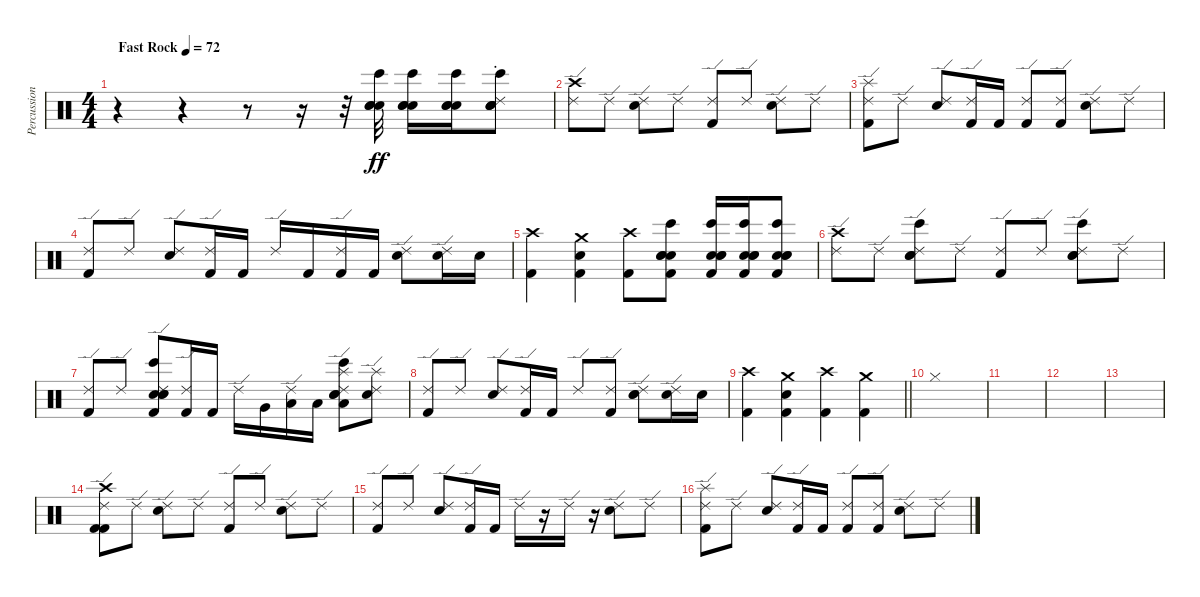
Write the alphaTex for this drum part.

\track ("Percussion" "Percussion") {instrument percussion}
\staff {score}
\articulation defaults
\ts (4 4)
\tempo (72 "Fast Rock")
\clef neutral
\ks c
r.4{dy ff} r.4 r.8 r.16 r.32 ("Snare (hit) 2" "Hand Clap (hit)" "Bongo High (hit)" "Electric Snare (hit)").32 ("Snare (hit) 2" "Hand Clap (hit)" "Bongo High (hit)" "Electric Snare (hit)").16 ("Snare (hit) 2" "Hand Clap (hit)" "Bongo High (hit)" "Electric Snare (hit)").16 ("Hand Clap (hit)" "Snare (hit) 2" "Bongo High (hit)" "Electric Snare (hit)" "Ride (choke) 2").8 |
("Crash high (hit)" "Ride (edge) 2").8 "Ride (edge) 2".8 ("Ride (edge) 2" "Snare (hit) 2").8 "Ride (edge) 2".8 ("Ride (edge) 2" "Kick (hit) 2").8 "Ride (edge) 2".8 ("Ride (edge) 2" "Snare (hit) 2").8 "Ride (edge) 2".8 |
("Splash (hit)" "Kick (hit) 2" "Ride (edge) 2").8 "Ride (edge) 2".8 ("Ride (edge) 2" "Snare (hit) 2").8 ("Ride (edge) 2" "Kick (hit) 2").16 "Kick (hit) 2".16 ("Ride (edge) 2" "Kick (hit) 2").8 ("Ride (edge) 2" "Kick (hit) 2").8 ("Ride (edge) 2" "Snare (hit) 2").8 "Ride (edge) 2".8 |
("Ride (edge) 2" "Kick (hit) 2").8 "Ride (edge) 2".8 ("Ride (edge) 2" "Snare (hit) 2").8 ("Ride (edge) 2" "Kick (hit) 2").16 "Kick (hit) 2".16 "Ride (edge) 2".16 "Kick (hit) 2".16 ("Ride (edge) 2" "Kick (hit) 2").16 "Kick (hit) 2".16 ("Snare (hit) 2" "Ride (edge) 2").8 ("Ride (edge) 2" "Snare (hit) 2").16 "Snare (hit) 2".16 |
("Crash high (hit)" "Kick (hit) 2").4 ("Snare (hit) 2" "Crash medium (hit)" "Kick (hit) 2").4 ("Crash high (hit)" "Kick (hit) 2").8 ("Kick (hit) 2" "Bongo High (hit)" "Snare (hit) 2" "Electric Snare (hit)" "Hand Clap (hit)").8 ("Kick (hit) 2" "Bongo High (hit)" "Snare (hit) 2" "Electric Snare (hit)" "Hand Clap (hit)").16 ("Kick (hit) 2" "Bongo High (hit)" "Snare (hit) 2" "Electric Snare (hit)" "Hand Clap (hit)").16 ("Kick (hit) 2" "Bongo High (hit)" "Snare (hit) 2" "Electric Snare (hit)" "Hand Clap (hit)").8 |
("Crash high (hit)" "Ride (edge) 2").8 "Ride (edge) 2".8 ("Ride (edge) 2" "Snare (hit) 2" "Bongo High (hit)" "Hand Clap (hit)").8 "Ride (edge) 2".8 ("Ride (edge) 2" "Kick (hit) 2").8 "Ride (edge) 2".8 ("Ride (edge) 2" "Snare (hit) 2" "Bongo High (hit)" "Hand Clap (hit)").8 "Ride (edge) 2".8 |
("Ride (edge) 2" "Kick (hit) 2").8 "Ride (edge) 2".8 ("Hand Clap (hit)" "Bongo High (hit)" "Ride (edge) 2" "Snare (hit) 2" "Electric Snare (hit)" "Kick (hit) 2").8 ("Ride (edge) 2" "Kick (hit) 2").16 "Kick (hit) 2".16 "Ride (edge) 2".16 "Very Low Tom (hit)".16 ("Ride (edge) 2" "Low Floor Tom (hit)").16 "Low Floor Tom (hit)".16 ("Hand Clap (hit)" "Bongo High (hit)" "Snare (hit) 2" "Ride (edge) 2" "Splash (hit)" "Low Floor Tom (hit)").8 ("Ride (edge) 2" "Snare (hit) 2" "Splash (hit)").8 |
("Ride (edge) 2" "Kick (hit) 2").8 "Ride (edge) 2".8 ("Ride (edge) 2" "Snare (hit) 2").8 ("Ride (edge) 2" "Kick (hit) 2").16 "Kick (hit) 2".16 "Ride (edge) 2".8 ("Ride (edge) 2" "Kick (hit) 2").8 ("Electric Snare (hit)" "Snare (hit) 2" "Ride (edge) 2").8 ("Ride (edge) 2" "Snare (hit) 2").16 "Snare (hit) 2".16 |
\barLineRight lightlight
("Crash high (hit)" "Kick (hit) 2").4 ("Snare (hit) 2" "Crash medium (hit)" "Kick (hit) 2").4 ("Crash high (hit)" "Kick (hit) 2").4 ("Crash medium (hit)" "Kick (hit) 2").4 |
"Hi-Hat (closed)".1 |
|
|
|
("Crash high (hit)" "Ride (edge) 2" "Kick (hit) 2" "Kick (hit) 2").8 "Ride (edge) 2".8 ("Ride (edge) 2" "Snare (hit) 2").8 "Ride (edge) 2".8 ("Ride (edge) 2" "Kick (hit) 2").8 "Ride (edge) 2".8 ("Ride (edge) 2" "Snare (hit) 2").8 "Ride (edge) 2".8 |
("Ride (edge) 2" "Kick (hit) 2").8 "Ride (edge) 2".8 ("Ride (edge) 2" "Snare (hit) 2").8 ("Ride (edge) 2" "Kick (hit) 2").16 "Kick (hit) 2".16 "Ride (edge) 2".16 r.16 "Ride (edge) 2".16 r.16 ("Snare (hit) 2" "Ride (edge) 2").8 "Ride (edge) 2".8 |
("Splash (hit)" "Kick (hit) 2" "Ride (edge) 2").8 "Ride (edge) 2".8 ("Ride (edge) 2" "Snare (hit) 2").8 ("Ride (edge) 2" "Kick (hit) 2").16 "Kick (hit) 2".16 ("Ride (edge) 2" "Kick (hit) 2").8 ("Ride (edge) 2" "Kick (hit) 2").8 ("Ride (edge) 2" "Snare (hit) 2").8 "Ride (edge) 2".8
